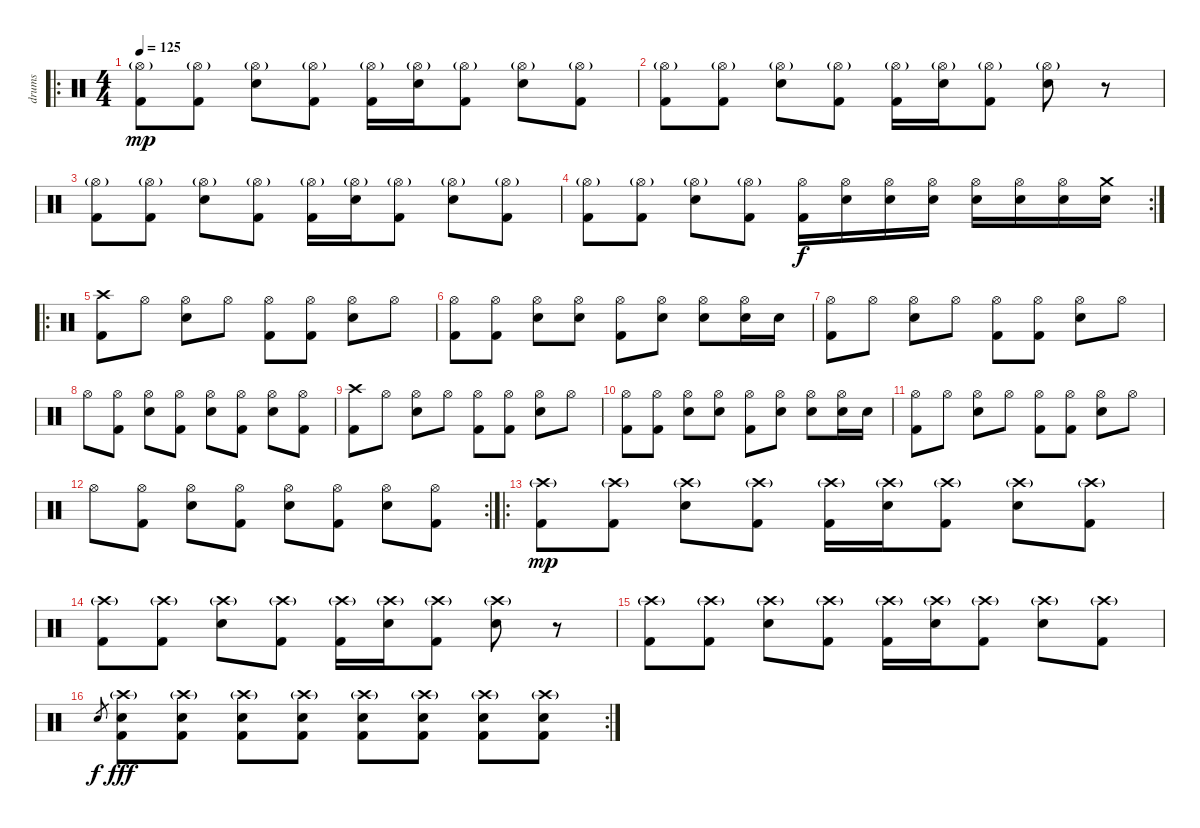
\track ("drums" "drums") {instrument percussion}
\staff {score}
\articulation defaults
\ro
\ts (4 4)
\tempo 125
\clef neutral
\ks c
("Hi-Hat (open)"{g} "Kick (hit) 2").8{dy mp} ("Hi-Hat (open)"{g} "Kick (hit) 2").8 ("Hi-Hat (open)"{g} "Electric Snare (hit)").8 ("Hi-Hat (open)"{g} "Kick (hit) 2").8 ("Hi-Hat (open)"{g} "Kick (hit) 2").16 ("Hi-Hat (open)"{g} "Electric Snare (hit)").16 ("Hi-Hat (open)"{g} "Kick (hit) 2").8 ("Hi-Hat (open)"{g} "Electric Snare (hit)").8 ("Hi-Hat (open)"{g} "Kick (hit) 2").8 |
("Hi-Hat (open)"{g} "Kick (hit) 2").8 ("Hi-Hat (open)"{g} "Kick (hit) 2").8 ("Hi-Hat (open)"{g} "Electric Snare (hit)").8 ("Hi-Hat (open)"{g} "Kick (hit) 2").8 ("Hi-Hat (open)"{g} "Kick (hit) 2").16 ("Hi-Hat (open)"{g} "Electric Snare (hit)").16 ("Hi-Hat (open)"{g} "Kick (hit) 2").8 ("Hi-Hat (open)"{g} "Electric Snare (hit)").8 r.8 |
("Hi-Hat (open)"{g} "Kick (hit) 2").8 ("Hi-Hat (open)"{g} "Kick (hit) 2").8 ("Hi-Hat (open)"{g} "Electric Snare (hit)").8 ("Hi-Hat (open)"{g} "Kick (hit) 2").8 ("Hi-Hat (open)"{g} "Kick (hit) 2").16 ("Hi-Hat (open)"{g} "Electric Snare (hit)").16 ("Hi-Hat (open)"{g} "Kick (hit) 2").8 ("Hi-Hat (open)"{g} "Electric Snare (hit)").8 ("Hi-Hat (open)"{g} "Kick (hit) 2").8 |
\rc 2
("Hi-Hat (open)"{g} "Kick (hit) 2").8 ("Hi-Hat (open)"{g} "Kick (hit) 2").8 ("Hi-Hat (open)"{g} "Electric Snare (hit)").8 ("Hi-Hat (open)"{g} "Kick (hit) 2").8 ("Hi-Hat (open)" "Kick (hit) 2").16{dy f} ("Hi-Hat (open)" "Electric Snare (hit)").16 ("Hi-Hat (open)" "Electric Snare (hit)").16 ("Hi-Hat (open)" "Electric Snare (hit)").16 ("Hi-Hat (open)" "Electric Snare (hit)").16 ("Hi-Hat (open)" "Electric Snare (hit)").16 ("Hi-Hat (open)" "Electric Snare (hit)").16 ("Crash medium (hit)" "Electric Snare (hit)").16 |
\ro
("Crash high (hit)" "Kick (hit) 2").8 "Hi-Hat (open)".8 ("Hi-Hat (open)" "Electric Snare (hit)").8 "Hi-Hat (open)".8 ("Hi-Hat (open)" "Kick (hit) 2").8 ("Hi-Hat (open)" "Kick (hit) 2").8 ("Hi-Hat (open)" "Electric Snare (hit)").8 "Hi-Hat (open)".8 |
("Hi-Hat (open)" "Kick (hit) 2").8 ("Hi-Hat (open)" "Kick (hit) 2").8 ("Hi-Hat (open)" "Electric Snare (hit)").8 ("Hi-Hat (open)" "Electric Snare (hit)").8 ("Hi-Hat (open)" "Kick (hit) 2").8 ("Hi-Hat (open)" "Electric Snare (hit)").8 ("Hi-Hat (open)" "Electric Snare (hit)").8 ("Hi-Hat (open)" "Electric Snare (hit)").16 "Electric Snare (hit)".16 |
("Hi-Hat (open)" "Kick (hit) 2").8 "Hi-Hat (open)".8 ("Hi-Hat (open)" "Electric Snare (hit)").8 "Hi-Hat (open)".8 ("Hi-Hat (open)" "Kick (hit) 2").8 ("Hi-Hat (open)" "Kick (hit) 2").8 ("Hi-Hat (open)" "Electric Snare (hit)").8 "Hi-Hat (open)".8 |
"Hi-Hat (open)".8 ("Hi-Hat (open)" "Kick (hit) 2").8 ("Hi-Hat (open)" "Electric Snare (hit)").8 ("Hi-Hat (open)" "Kick (hit) 2").8 ("Hi-Hat (open)" "Electric Snare (hit)").8 ("Hi-Hat (open)" "Kick (hit) 2").8 ("Hi-Hat (open)" "Electric Snare (hit)").8 ("Hi-Hat (open)" "Kick (hit) 2").8 |
("Crash high (hit)" "Kick (hit) 2").8 "Hi-Hat (open)".8 ("Hi-Hat (open)" "Electric Snare (hit)").8 "Hi-Hat (open)".8 ("Hi-Hat (open)" "Kick (hit) 2").8 ("Hi-Hat (open)" "Kick (hit) 2").8 ("Hi-Hat (open)" "Electric Snare (hit)").8 "Hi-Hat (open)".8 |
("Hi-Hat (open)" "Kick (hit) 2").8 ("Hi-Hat (open)" "Kick (hit) 2").8 ("Hi-Hat (open)" "Electric Snare (hit)").8 ("Hi-Hat (open)" "Electric Snare (hit)").8 ("Hi-Hat (open)" "Kick (hit) 2").8 ("Hi-Hat (open)" "Electric Snare (hit)").8 ("Hi-Hat (open)" "Electric Snare (hit)").8 ("Hi-Hat (open)" "Electric Snare (hit)").16 "Electric Snare (hit)".16 |
("Hi-Hat (open)" "Kick (hit) 2").8 "Hi-Hat (open)".8 ("Hi-Hat (open)" "Electric Snare (hit)").8 "Hi-Hat (open)".8 ("Hi-Hat (open)" "Kick (hit) 2").8 ("Hi-Hat (open)" "Kick (hit) 2").8 ("Hi-Hat (open)" "Electric Snare (hit)").8 "Hi-Hat (open)".8 |
\rc 2 "Hi-Hat (open)".8
("Hi-Hat (open)" "Kick (hit) 2").8 ("Hi-Hat (open)" "Electric Snare (hit)").8 ("Hi-Hat (open)" "Kick (hit) 2").8 ("Hi-Hat (open)" "Electric Snare (hit)").8 ("Hi-Hat (open)" "Kick (hit) 2").8 ("Hi-Hat (open)" "Electric Snare (hit)").8 ("Hi-Hat (open)" "Kick (hit) 2").8 |
\ro
("Crash high (hit)"{g} "Kick (hit) 2").8{dy mp} ("Crash high (hit)"{g} "Kick (hit) 2").8 ("Crash high (hit)"{g} "Electric Snare (hit)").8 ("Crash high (hit)"{g} "Kick (hit) 2").8 ("Crash high (hit)"{g} "Kick (hit) 2").16 ("Crash high (hit)"{g} "Electric Snare (hit)").16 ("Crash high (hit)"{g} "Kick (hit) 2").8 ("Crash high (hit)"{g} "Electric Snare (hit)").8 ("Crash high (hit)"{g} "Kick (hit) 2").8 |
("Crash high (hit)"{g} "Kick (hit) 2").8 ("Crash high (hit)"{g} "Kick (hit) 2").8 ("Crash high (hit)"{g} "Electric Snare (hit)").8 ("Crash high (hit)"{g} "Kick (hit) 2").8 ("Crash high (hit)"{g} "Kick (hit) 2").16 ("Crash high (hit)"{g} "Electric Snare (hit)").16 ("Crash high (hit)"{g} "Kick (hit) 2").8 ("Crash high (hit)"{g} "Electric Snare (hit)").8 r.8 |
("Crash high (hit)"{g} "Kick (hit) 2").8 ("Crash high (hit)"{g} "Kick (hit) 2").8 ("Crash high (hit)"{g} "Electric Snare (hit)").8 ("Crash high (hit)"{g} "Kick (hit) 2").8 ("Crash high (hit)"{g} "Kick (hit) 2").16 ("Crash high (hit)"{g} "Electric Snare (hit)").16 ("Crash high (hit)"{g} "Kick (hit) 2").8 ("Crash high (hit)"{g} "Electric Snare (hit)").8 ("Crash high (hit)"{g} "Kick (hit) 2").8 |
\rc 2 "Electric Snare (hit)".8{gr dy f}
("Crash high (hit)"{g} "Kick (hit) 2" "Electric Snare (hit)").8{dy fff} ("Crash high (hit)"{g} "Kick (hit) 2" "Electric Snare (hit)").8 ("Crash high (hit)"{g} "Kick (hit) 2" "Electric Snare (hit)").8 ("Crash high (hit)"{g} "Kick (hit) 2" "Electric Snare (hit)").8 ("Crash high (hit)"{g} "Kick (hit) 2" "Electric Snare (hit)").8 ("Crash high (hit)"{g} "Kick (hit) 2" "Electric Snare (hit)").8 ("Crash high (hit)"{g} "Kick (hit) 2" "Electric Snare (hit)").8 ("Crash high (hit)"{g} "Kick (hit) 2" "Electric Snare (hit)").8
